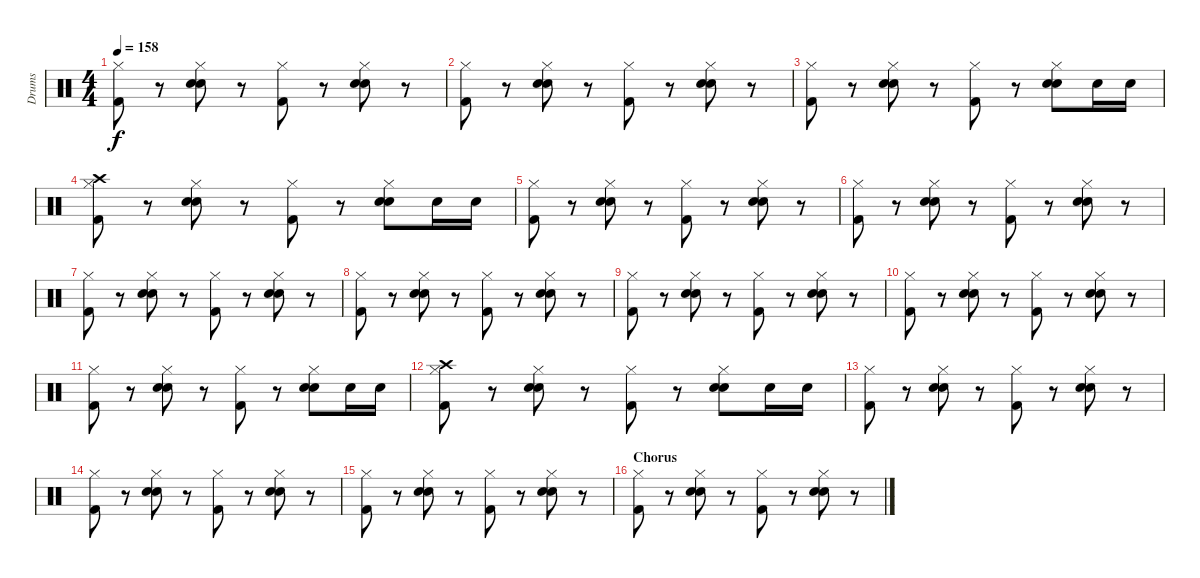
\track ("Drums" "Drums") {instrument percussion}
\staff {score}
\articulation defaults
\ts (4 4)
\tempo 158
\clef neutral
\ks c
("Hi-Hat (closed)" "Kick (hit) 2").8{dy f} r.8 ("Hi-Hat (closed)" "Snare (hit) 2" "Snare (hit) 2").8 r.8 ("Hi-Hat (closed)" "Kick (hit) 2").8 r.8 ("Hi-Hat (closed)" "Snare (hit) 2" "Snare (hit) 2").8 r.8 |
("Hi-Hat (closed)" "Kick (hit) 2").8 r.8 ("Hi-Hat (closed)" "Snare (hit) 2" "Snare (hit) 2").8 r.8 ("Hi-Hat (closed)" "Kick (hit) 2").8 r.8 ("Hi-Hat (closed)" "Snare (hit) 2" "Snare (hit) 2").8 r.8 |
("Hi-Hat (closed)" "Kick (hit) 2").8 r.8 ("Hi-Hat (closed)" "Snare (hit) 2" "Snare (hit) 2").8 r.8 ("Hi-Hat (closed)" "Kick (hit) 2").8 r.8 ("Hi-Hat (closed)" "Snare (hit) 2" "Snare (hit) 2").8 "Snare (hit) 2".16 "Snare (hit) 2".16 |
("Hi-Hat (closed)" "Crash high (hit)" "Kick (hit) 2").8 r.8 ("Hi-Hat (closed)" "Snare (hit) 2" "Snare (hit) 2").8 r.8 ("Hi-Hat (closed)" "Kick (hit) 2").8 r.8 ("Hi-Hat (closed)" "Snare (hit) 2" "Snare (hit) 2").8 "Snare (hit) 2".16 "Snare (hit) 2".16 |
("Hi-Hat (closed)" "Kick (hit) 2").8 r.8 ("Hi-Hat (closed)" "Snare (hit) 2" "Snare (hit) 2").8 r.8 ("Hi-Hat (closed)" "Kick (hit) 2").8 r.8 ("Hi-Hat (closed)" "Snare (hit) 2" "Snare (hit) 2").8 r.8 |
("Hi-Hat (closed)" "Kick (hit) 2").8 r.8 ("Hi-Hat (closed)" "Snare (hit) 2" "Snare (hit) 2").8 r.8 ("Hi-Hat (closed)" "Kick (hit) 2").8 r.8 ("Hi-Hat (closed)" "Snare (hit) 2" "Snare (hit) 2").8 r.8 |
("Hi-Hat (closed)" "Kick (hit) 2").8 r.8 ("Hi-Hat (closed)" "Snare (hit) 2" "Snare (hit) 2").8 r.8 ("Hi-Hat (closed)" "Kick (hit) 2").8 r.8 ("Hi-Hat (closed)" "Snare (hit) 2" "Snare (hit) 2").8 r.8 |
("Hi-Hat (closed)" "Kick (hit) 2").8 r.8 ("Hi-Hat (closed)" "Snare (hit) 2" "Snare (hit) 2").8 r.8 ("Hi-Hat (closed)" "Kick (hit) 2").8 r.8 ("Hi-Hat (closed)" "Snare (hit) 2" "Snare (hit) 2").8 r.8 |
("Hi-Hat (closed)" "Kick (hit) 2").8 r.8 ("Hi-Hat (closed)" "Snare (hit) 2" "Snare (hit) 2").8 r.8 ("Hi-Hat (closed)" "Kick (hit) 2").8 r.8 ("Hi-Hat (closed)" "Snare (hit) 2" "Snare (hit) 2").8 r.8 |
("Hi-Hat (closed)" "Kick (hit) 2").8 r.8 ("Hi-Hat (closed)" "Snare (hit) 2" "Snare (hit) 2").8 r.8 ("Hi-Hat (closed)" "Kick (hit) 2").8 r.8 ("Hi-Hat (closed)" "Snare (hit) 2" "Snare (hit) 2").8 r.8 |
("Hi-Hat (closed)" "Kick (hit) 2").8 r.8 ("Hi-Hat (closed)" "Snare (hit) 2" "Snare (hit) 2").8 r.8 ("Hi-Hat (closed)" "Kick (hit) 2").8 r.8 ("Hi-Hat (closed)" "Snare (hit) 2" "Snare (hit) 2").8 "Snare (hit) 2".16 "Snare (hit) 2".16 |
("Hi-Hat (closed)" "Crash high (hit)" "Kick (hit) 2").8 r.8 ("Hi-Hat (closed)" "Snare (hit) 2" "Snare (hit) 2").8 r.8 ("Hi-Hat (closed)" "Kick (hit) 2").8 r.8 ("Hi-Hat (closed)" "Snare (hit) 2" "Snare (hit) 2").8 "Snare (hit) 2".16 "Snare (hit) 2".16 |
("Hi-Hat (closed)" "Kick (hit) 2").8 r.8 ("Hi-Hat (closed)" "Snare (hit) 2" "Snare (hit) 2").8 r.8 ("Hi-Hat (closed)" "Kick (hit) 2").8 r.8 ("Hi-Hat (closed)" "Snare (hit) 2" "Snare (hit) 2").8 r.8 |
("Hi-Hat (closed)" "Kick (hit) 2").8 r.8 ("Hi-Hat (closed)" "Snare (hit) 2" "Snare (hit) 2").8 r.8 ("Hi-Hat (closed)" "Kick (hit) 2").8 r.8 ("Hi-Hat (closed)" "Snare (hit) 2" "Snare (hit) 2").8 r.8 |
("Hi-Hat (closed)" "Kick (hit) 2").8 r.8 ("Hi-Hat (closed)" "Snare (hit) 2" "Snare (hit) 2").8 r.8 ("Hi-Hat (closed)" "Kick (hit) 2").8 r.8 ("Hi-Hat (closed)" "Snare (hit) 2" "Snare (hit) 2").8 r.8 |
\section ("" "Chorus")
("Hi-Hat (closed)" "Kick (hit) 2").8 r.8 ("Hi-Hat (closed)" "Snare (hit) 2" "Snare (hit) 2").8 r.8 ("Hi-Hat (closed)" "Kick (hit) 2").8 r.8 ("Hi-Hat (closed)" "Snare (hit) 2" "Snare (hit) 2").8 r.8
